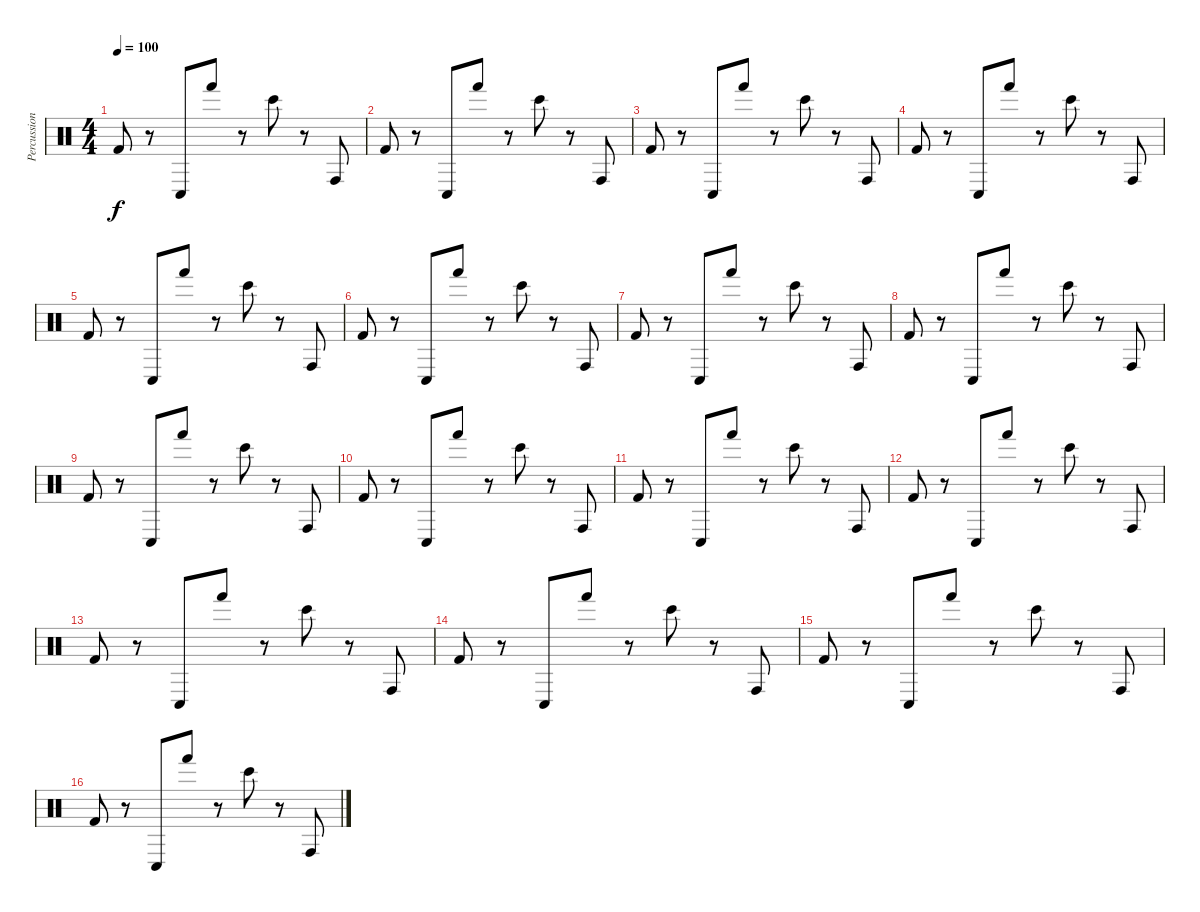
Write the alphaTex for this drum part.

\track ("Percussion" "Percussion") {instrument percussion}
\staff {score}
\articulation defaults
\ts (4 4)
\tempo 100
\clef neutral
\ks c "Kick (hit) 2".8{dy f}
r.8 "Conga low (hit)".8 "Hand (hit)".8 r.8 "Bongo High (hit)".8 r.8 "Conga high (hit)".8 |
"Kick (hit) 2".8 r.8 "Conga low (hit)".8 "Hand (hit)".8 r.8 "Bongo High (hit)".8 r.8 "Conga high (hit)".8 |
"Kick (hit) 2".8 r.8 "Conga low (hit)".8 "Hand (hit)".8 r.8 "Bongo High (hit)".8 r.8 "Conga high (hit)".8 |
"Kick (hit) 2".8 r.8 "Conga low (hit)".8 "Hand (hit)".8 r.8 "Bongo High (hit)".8 r.8 "Conga high (hit)".8 |
"Kick (hit) 2".8 r.8 "Conga low (hit)".8 "Hand (hit)".8 r.8 "Bongo High (hit)".8 r.8 "Conga high (hit)".8 |
"Kick (hit) 2".8 r.8 "Conga low (hit)".8 "Hand (hit)".8 r.8 "Bongo High (hit)".8 r.8 "Conga high (hit)".8 |
"Kick (hit) 2".8 r.8 "Conga low (hit)".8 "Hand (hit)".8 r.8 "Bongo High (hit)".8 r.8 "Conga high (hit)".8 |
"Kick (hit) 2".8 r.8 "Conga low (hit)".8 "Hand (hit)".8 r.8 "Bongo High (hit)".8 r.8 "Conga high (hit)".8 |
"Kick (hit) 2".8 r.8 "Conga low (hit)".8 "Hand (hit)".8 r.8 "Bongo High (hit)".8 r.8 "Conga high (hit)".8 |
"Kick (hit) 2".8 r.8 "Conga low (hit)".8 "Hand (hit)".8 r.8 "Bongo High (hit)".8 r.8 "Conga high (hit)".8 |
"Kick (hit) 2".8 r.8 "Conga low (hit)".8 "Hand (hit)".8 r.8 "Bongo High (hit)".8 r.8 "Conga high (hit)".8 |
"Kick (hit) 2".8 r.8 "Conga low (hit)".8 "Hand (hit)".8 r.8 "Bongo High (hit)".8 r.8 "Conga high (hit)".8 |
"Kick (hit) 2".8 r.8 "Conga low (hit)".8 "Hand (hit)".8 r.8 "Bongo High (hit)".8 r.8 "Conga high (hit)".8 |
"Kick (hit) 2".8 r.8 "Conga low (hit)".8 "Hand (hit)".8 r.8 "Bongo High (hit)".8 r.8 "Conga high (hit)".8 |
"Kick (hit) 2".8 r.8 "Conga low (hit)".8 "Hand (hit)".8 r.8 "Bongo High (hit)".8 r.8 "Conga high (hit)".8 |
"Kick (hit) 2".8 r.8 "Conga low (hit)".8 "Hand (hit)".8 r.8 "Bongo High (hit)".8 r.8 "Conga high (hit)".8
